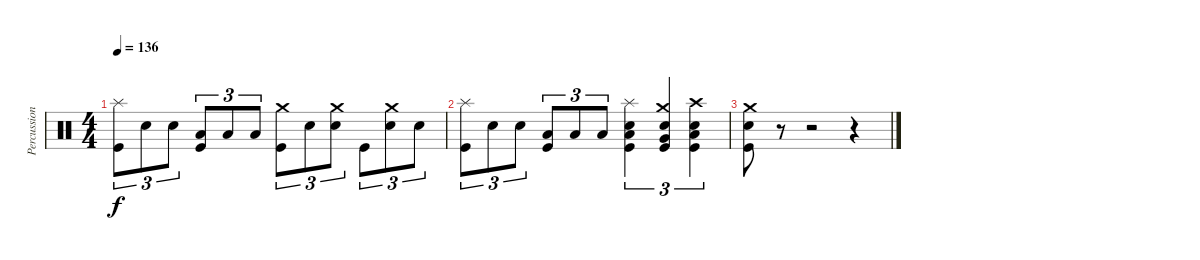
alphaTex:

\track ("Percussions" "Percussion") {instrument percussion}
\staff {score}
\articulation defaults
\ts (4 4)
\tempo 136
\clef neutral
\ks c
("Splash (hit)" "Kick (hit)").8{tu (3 2) dy f} "Snare (hit) 2".8{tu (3 2)} "Snare (hit) 2".8{tu (3 2)} ("Low Floor Tom (hit)" "Kick (hit)").8{tu (3 2)} "Low Floor Tom (hit)".8{tu (3 2)} "Low Floor Tom (hit)".8{tu (3 2)} ("Crash medium (hit)" "Kick (hit)").8{tu (3 2)} "Snare (hit) 2".8{tu (3 2)} ("Crash medium (hit)" "Snare (hit) 2").8{tu (3 2)} "Kick (hit)".8{tu (3 2)} ("Crash medium (hit)" "Snare (hit) 2").8{tu (3 2)} "Snare (hit) 2".8{tu (3 2)} |
("Splash (hit)" "Kick (hit)").8{tu (3 2)} "Snare (hit) 2".8{tu (3 2)} "Snare (hit) 2".8{tu (3 2)} ("Low Floor Tom (hit)" "Kick (hit)").8{tu (3 2)} "Low Floor Tom (hit)".8{tu (3 2)} "Low Floor Tom (hit)".8{tu (3 2)} ("Splash (hit)" "Snare (hit) 2" "Low Tom (hit)" "Kick (hit)").4{tu (3 2)} ("Crash medium (hit)" "Snare (hit) 2" "Very Low Tom (hit)" "Kick (hit)").4{tu (3 2)} ("Crash high (hit)" "Snare (hit) 2" "Low Floor Tom (hit)" "Kick (hit)").4{tu (3 2)} |
("Crash medium (hit)" "Snare (hit) 2" "Kick (hit)").8 r.8 r.2 r.4
